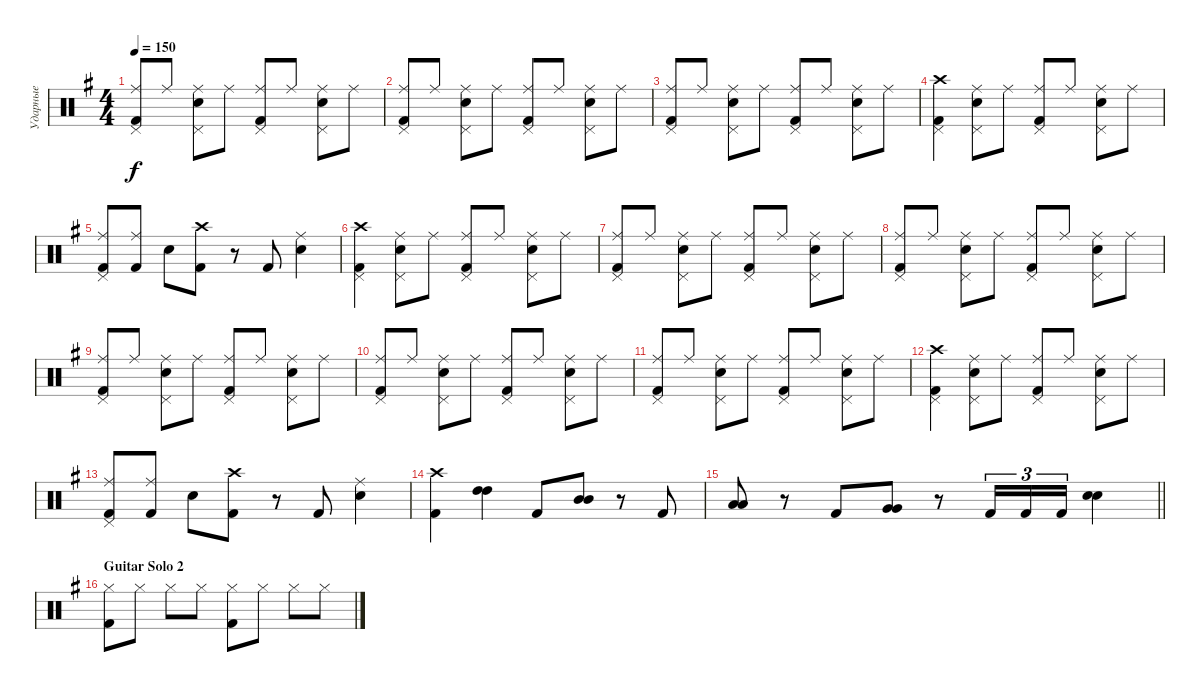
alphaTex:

\track ("Ударные" "Ударные") {instrument percussion}
\staff {score}
\articulation defaults
\ts (4 4)
\tempo 150
\clef neutral
\ks eminor
("Ride (middle)" "Kick (hit) 2" "Pedal Hi-Hat (hit)").8{dy f} "Ride (middle)".8 ("Ride (middle)" "Snare (hit) 2" "Pedal Hi-Hat (hit)").8 "Ride (middle)".8 ("Ride (middle)" "Kick (hit) 2" "Pedal Hi-Hat (hit)").8 "Ride (middle)".8 ("Ride (middle)" "Snare (hit) 2" "Pedal Hi-Hat (hit)").8 "Ride (middle)".8 |
("Ride (middle)" "Kick (hit) 2" "Pedal Hi-Hat (hit)").8 "Ride (middle)".8 ("Ride (middle)" "Snare (hit) 2" "Pedal Hi-Hat (hit)").8 "Ride (middle)".8 ("Ride (middle)" "Kick (hit) 2" "Pedal Hi-Hat (hit)").8 "Ride (middle)".8 ("Ride (middle)" "Snare (hit) 2" "Pedal Hi-Hat (hit)").8 "Ride (middle)".8 |
("Ride (middle)" "Kick (hit) 2" "Pedal Hi-Hat (hit)").8 "Ride (middle)".8 ("Ride (middle)" "Snare (hit) 2" "Pedal Hi-Hat (hit)").8 "Ride (middle)".8 ("Ride (middle)" "Kick (hit) 2" "Pedal Hi-Hat (hit)").8 "Ride (middle)".8 ("Ride (middle)" "Snare (hit) 2" "Pedal Hi-Hat (hit)").8 "Ride (middle)".8 |
("Crash high (hit)" "Kick (hit) 2" "Pedal Hi-Hat (hit)").4 ("Ride (middle)" "Snare (hit) 2" "Pedal Hi-Hat (hit)").8 "Ride (middle)".8 ("Ride (middle)" "Kick (hit) 2" "Pedal Hi-Hat (hit)").8 "Ride (middle)".8 ("Ride (middle)" "Snare (hit) 2" "Pedal Hi-Hat (hit)").8 "Ride (middle)".8 |
("Ride (middle)" "Kick (hit) 2" "Pedal Hi-Hat (hit)").8 ("Ride (middle)" "Kick (hit) 2").8 "Snare (hit) 2".8 ("Crash high (hit)" "Kick (hit) 2").8 r.8 "Kick (hit) 2".8 ("Ride (middle)" "Snare (hit) 2").4 |
("Crash high (hit)" "Kick (hit) 2" "Pedal Hi-Hat (hit)").4 ("Ride (middle)" "Snare (hit) 2" "Pedal Hi-Hat (hit)").8 "Ride (middle)".8 ("Ride (middle)" "Kick (hit) 2" "Pedal Hi-Hat (hit)").8 "Ride (middle)".8 ("Ride (middle)" "Snare (hit) 2" "Pedal Hi-Hat (hit)").8 "Ride (middle)".8 |
("Ride (middle)" "Kick (hit) 2" "Pedal Hi-Hat (hit)").8 "Ride (middle)".8 ("Ride (middle)" "Snare (hit) 2" "Pedal Hi-Hat (hit)").8 "Ride (middle)".8 ("Ride (middle)" "Kick (hit) 2" "Pedal Hi-Hat (hit)").8 "Ride (middle)".8 ("Ride (middle)" "Snare (hit) 2" "Pedal Hi-Hat (hit)").8 "Ride (middle)".8 |
("Ride (middle)" "Kick (hit) 2" "Pedal Hi-Hat (hit)").8 "Ride (middle)".8 ("Ride (middle)" "Snare (hit) 2" "Pedal Hi-Hat (hit)").8 "Ride (middle)".8 ("Ride (middle)" "Kick (hit) 2" "Pedal Hi-Hat (hit)").8 "Ride (middle)".8 ("Ride (middle)" "Snare (hit) 2" "Pedal Hi-Hat (hit)").8 "Ride (middle)".8 |
("Ride (middle)" "Kick (hit) 2" "Pedal Hi-Hat (hit)").8 "Ride (middle)".8 ("Ride (middle)" "Snare (hit) 2" "Pedal Hi-Hat (hit)").8 "Ride (middle)".8 ("Ride (middle)" "Kick (hit) 2" "Pedal Hi-Hat (hit)").8 "Ride (middle)".8 ("Ride (middle)" "Snare (hit) 2" "Pedal Hi-Hat (hit)").8 "Ride (middle)".8 |
("Ride (middle)" "Kick (hit) 2" "Pedal Hi-Hat (hit)").8 "Ride (middle)".8 ("Ride (middle)" "Snare (hit) 2" "Pedal Hi-Hat (hit)").8 "Ride (middle)".8 ("Ride (middle)" "Kick (hit) 2" "Pedal Hi-Hat (hit)").8 "Ride (middle)".8 ("Ride (middle)" "Snare (hit) 2" "Pedal Hi-Hat (hit)").8 "Ride (middle)".8 |
("Ride (middle)" "Kick (hit) 2" "Pedal Hi-Hat (hit)").8 "Ride (middle)".8 ("Ride (middle)" "Snare (hit) 2" "Pedal Hi-Hat (hit)").8 "Ride (middle)".8 ("Ride (middle)" "Kick (hit) 2" "Pedal Hi-Hat (hit)").8 "Ride (middle)".8 ("Ride (middle)" "Snare (hit) 2" "Pedal Hi-Hat (hit)").8 "Ride (middle)".8 |
("Crash high (hit)" "Kick (hit) 2" "Pedal Hi-Hat (hit)").4 ("Ride (middle)" "Snare (hit) 2" "Pedal Hi-Hat (hit)").8 "Ride (middle)".8 ("Ride (middle)" "Kick (hit) 2" "Pedal Hi-Hat (hit)").8 "Ride (middle)".8 ("Ride (middle)" "Snare (hit) 2" "Pedal Hi-Hat (hit)").8 "Ride (middle)".8 |
("Ride (middle)" "Kick (hit) 2" "Pedal Hi-Hat (hit)").8 ("Ride (middle)" "Kick (hit) 2").8 "Snare (hit) 2".8 ("Crash high (hit)" "Kick (hit) 2").8 r.8 "Kick (hit) 2".8 ("Ride (middle)" "Snare (hit) 2").4 |
("Kick (hit) 2" "Crash high (hit)").4 ("High Tom (hit)" "High Tom (hit)").4{bd 240} "Kick (hit) 2".8 ("Mid Tom (hit)" "Mid Tom (hit)").8{bd 240} r.8 "Kick (hit) 2".8 |
\barLineRight lightlight
("Low Tom (hit)" "Low Tom (hit)").8{bd 240} r.8 "Kick (hit) 2".8 ("Very Low Tom (hit)" "Very Low Tom (hit)").8{bd 240} r.8 "Kick (hit) 2".16{tu (3 2)} "Kick (hit) 2".16{tu (3 2)} "Kick (hit) 2".16{tu (3 2)} ("Snare (hit) 2" "Snare (hit) 2").4{bd 240} |
\section ("" "Guitar Solo 2")
("Kick (hit) 2" "Hi-Hat (closed)").8 "Hi-Hat (closed)".8 "Hi-Hat (closed)".8 "Hi-Hat (closed)".8 ("Hi-Hat (closed)" "Kick (hit) 2").8 "Hi-Hat (closed)".8 "Hi-Hat (closed)".8 "Hi-Hat (closed)".8
